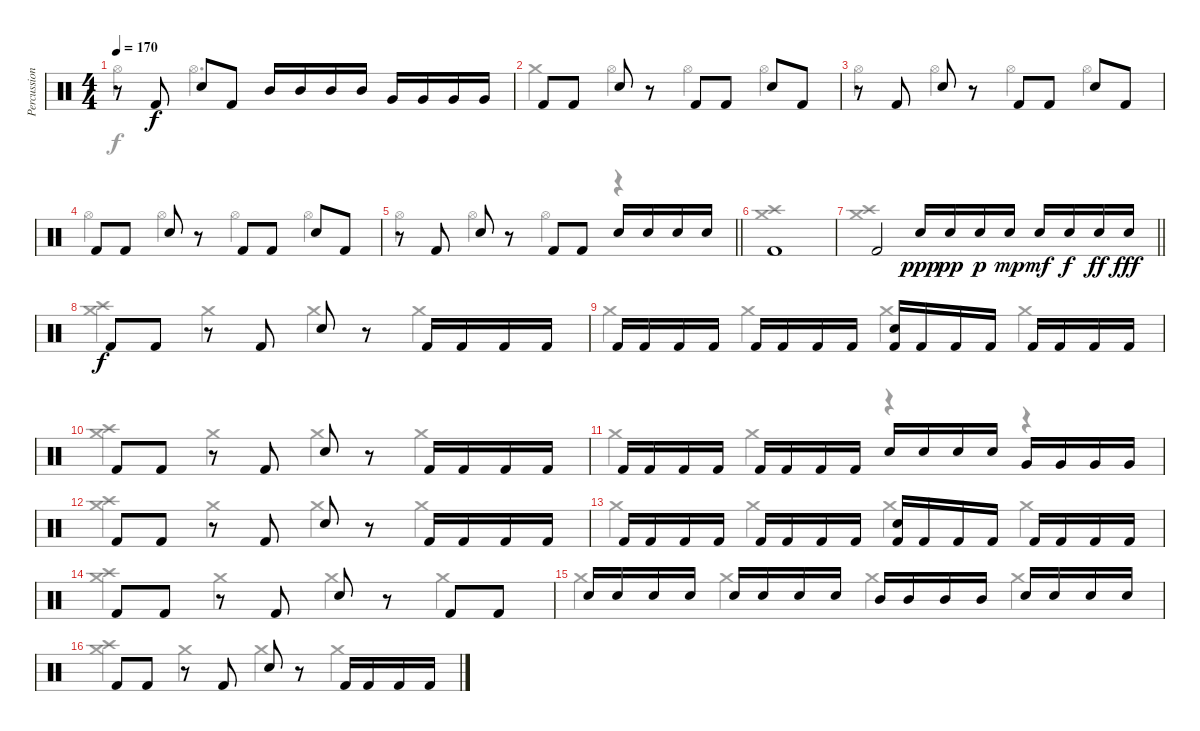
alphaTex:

\track ("Percussion" "Percussion") {instrument percussion}
\staff {score}
\articulation defaults
\voice
\ts (4 4)
\tempo 170
\clef neutral
\ks c
r.8{dy f} "Kick (hit) 2".8 "Snare (hit) 2".8 "Kick (hit) 2".8 "Mid Tom (hit)".16 "Mid Tom (hit)".16 "Mid Tom (hit)".16 "Mid Tom (hit)".16 "Very Low Tom (hit)".16 "Very Low Tom (hit)".16 "Very Low Tom (hit)".16 "Very Low Tom (hit)".16 |
"Kick (hit) 2".8 "Kick (hit) 2".8 "Snare (hit) 2".8 r.8 "Kick (hit) 2".8 "Kick (hit) 2".8 "Snare (hit) 2".8 "Kick (hit) 2".8 |
r.8 "Kick (hit) 2".8 "Snare (hit) 2".8 r.8 "Kick (hit) 2".8 "Kick (hit) 2".8 "Snare (hit) 2".8 "Kick (hit) 2".8 |
"Kick (hit) 2".8 "Kick (hit) 2".8 "Snare (hit) 2".8 r.8 "Kick (hit) 2".8 "Kick (hit) 2".8 "Snare (hit) 2".8 "Kick (hit) 2".8 |
\barLineRight lightlight
r.8 "Kick (hit) 2".8 "Snare (hit) 2".8 r.8 "Kick (hit) 2".8 "Kick (hit) 2".8 "Snare (hit) 2".16 "Snare (hit) 2".16 "Snare (hit) 2".16 "Snare (hit) 2".16 |
"Kick (hit) 2".1 |
\barLineRight lightlight "Kick (hit) 2".2 "Snare (hit) 2".16{dy ppp} "Snare (hit) 2".16{dy pp} "Snare (hit) 2".16{dy p} "Snare (hit) 2".16{dy mp} "Snare (hit) 2".16{dy mf} "Snare (hit) 2".16{dy f} "Snare (hit) 2".16{dy ff} "Snare (hit) 2".16{dy fff}
|
"Kick (hit) 2".8{dy f} "Kick (hit) 2".8 r.8 "Kick (hit) 2".8 "Snare (hit) 2".8 r.8 "Kick (hit) 2".16 "Kick (hit) 2".16 "Kick (hit) 2".16 "Kick (hit) 2".16 |
"Kick (hit) 2".16 "Kick (hit) 2".16 "Kick (hit) 2".16 "Kick (hit) 2".16 "Kick (hit) 2".16 "Kick (hit) 2".16 "Kick (hit) 2".16 "Kick (hit) 2".16 ("Snare (hit) 2" "Kick (hit) 2").16 "Kick (hit) 2".16 "Kick (hit) 2".16 "Kick (hit) 2".16 "Kick (hit) 2".16 "Kick (hit) 2".16 "Kick (hit) 2".16 "Kick (hit) 2".16 |
"Kick (hit) 2".8 "Kick (hit) 2".8 r.8 "Kick (hit) 2".8 "Snare (hit) 2".8 r.8 "Kick (hit) 2".16 "Kick (hit) 2".16 "Kick (hit) 2".16 "Kick (hit) 2".16 |
"Kick (hit) 2".16 "Kick (hit) 2".16 "Kick (hit) 2".16 "Kick (hit) 2".16 "Kick (hit) 2".16 "Kick (hit) 2".16 "Kick (hit) 2".16 "Kick (hit) 2".16 "Snare (hit) 2".16 "Snare (hit) 2".16 "Snare (hit) 2".16 "Snare (hit) 2".16 "Very Low Tom (hit)".16 "Very Low Tom (hit)".16 "Very Low Tom (hit)".16 "Very Low Tom (hit)".16 |
"Kick (hit) 2".8 "Kick (hit) 2".8 r.8 "Kick (hit) 2".8 "Snare (hit) 2".8 r.8 "Kick (hit) 2".16 "Kick (hit) 2".16 "Kick (hit) 2".16 "Kick (hit) 2".16 |
"Kick (hit) 2".16 "Kick (hit) 2".16 "Kick (hit) 2".16 "Kick (hit) 2".16 "Kick (hit) 2".16 "Kick (hit) 2".16 "Kick (hit) 2".16 "Kick (hit) 2".16 ("Snare (hit) 2" "Kick (hit) 2").16 "Kick (hit) 2".16 "Kick (hit) 2".16 "Kick (hit) 2".16 "Kick (hit) 2".16 "Kick (hit) 2".16 "Kick (hit) 2".16 "Kick (hit) 2".16 |
"Kick (hit) 2".8 "Kick (hit) 2".8 r.8 "Kick (hit) 2".8 "Snare (hit) 2".8 r.8 "Kick (hit) 2".8 "Kick (hit) 2".8 |
"Snare (hit) 2".16 "Snare (hit) 2".16 "Snare (hit) 2".16 "Snare (hit) 2".16 "Snare (hit) 2".16 "Snare (hit) 2".16 "Snare (hit) 2".16 "Snare (hit) 2".16 "Mid Tom (hit)".16 "Mid Tom (hit)".16 "Mid Tom (hit)".16 "Mid Tom (hit)".16 "Snare (hit) 2".16 "Snare (hit) 2".16 "Snare (hit) 2".16 "Snare (hit) 2".16 |
"Kick (hit) 2".8 "Kick (hit) 2".8 r.8 "Kick (hit) 2".8 "Snare (hit) 2".8 r.8 "Kick (hit) 2".16 "Kick (hit) 2".16 "Kick (hit) 2".16 "Kick (hit) 2".16
\voice
\clef neutral
\ottava regular
\simile none
\ks c "Hi-Hat (open)".4{dy f} "Hi-Hat (open)".2{d}
|
"Crash medium (hit)".4 "Hi-Hat (open)".4 "Hi-Hat (open)".4 "Hi-Hat (open)".4 |
"Hi-Hat (open)".4 "Hi-Hat (open)".4 "Hi-Hat (open)".4 "Hi-Hat (open)".4 |
"Hi-Hat (open)".4 "Hi-Hat (open)".4 "Hi-Hat (open)".4 "Hi-Hat (open)".4 |
\barLineRight lightlight "Hi-Hat (open)".4 "Hi-Hat (open)".4 "Hi-Hat (open)".4
r.4 |
("Crash high (hit)" "Crash medium (hit)").1 |
\barLineRight lightlight
("Crash high (hit)" "Crash medium (hit)").1 |
("Crash medium (hit)" "Crash high (hit)").4 "Crash medium (hit)".4 "Crash medium (hit)".4 "Crash medium (hit)".4 |
"Crash medium (hit)".4 "Crash medium (hit)".4 "Crash medium (hit)".4 "Crash medium (hit)".4 |
("Crash medium (hit)" "Crash high (hit)").4 "Crash medium (hit)".4 "Crash medium (hit)".4 "Crash medium (hit)".4 |
"Crash medium (hit)".4 "Crash medium (hit)".4 r.4 r.4 |
("Crash medium (hit)" "Crash high (hit)").4 "Crash medium (hit)".4 "Crash medium (hit)".4 "Crash medium (hit)".4 |
"Crash medium (hit)".4 "Crash medium (hit)".4 "Crash medium (hit)".4 "Crash medium (hit)".4 |
("Crash medium (hit)" "Crash high (hit)").4 "Crash medium (hit)".4 "Crash medium (hit)".4 "Crash medium (hit)".4 |
"Crash medium (hit)".4 "Crash medium (hit)".4 "Crash medium (hit)".4 "Crash medium (hit)".4 |
("Crash medium (hit)" "Crash high (hit)").4 "Crash medium (hit)".4 "Crash medium (hit)".4 "Crash medium (hit)".4
